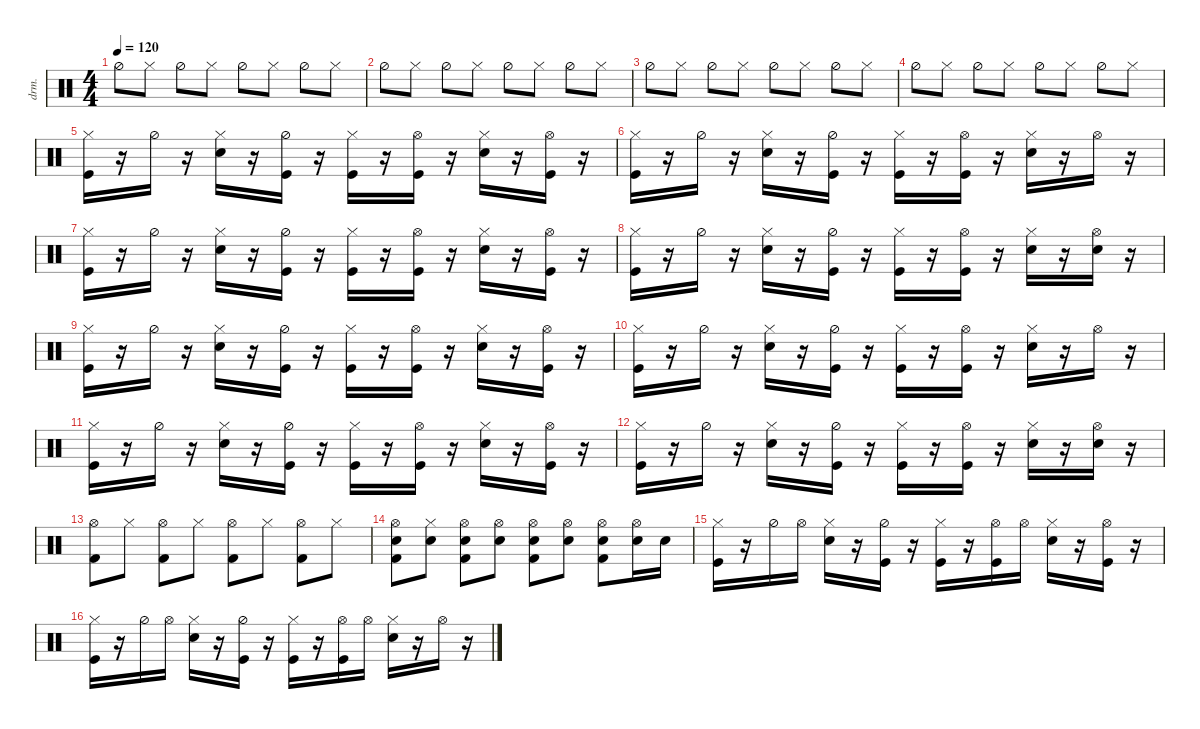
\defaultSystemsLayout 4
\hideDynamics
\bracketExtendMode nobrackets
\otherSystemsTrackNameOrientation horizontal
\track ("Drumkit" "drm.") {instrument percussion}
\staff {score}
\articulation defaults
\ts (4 4)
\tempo 120
\clef neutral
\ks c "Hi-Hat (half)".8{dy mf beam Down} "Hi-Hat (closed)".8{beam Down} "Hi-Hat (half)".8{beam Down} "Hi-Hat (closed)".8{beam Down} "Hi-Hat (half)".8{beam Down} "Hi-Hat (closed)".8{beam Down} "Hi-Hat (half)".8{beam Down} "Hi-Hat (closed)".8{beam Down}
|
"Hi-Hat (half)".8{beam Down} "Hi-Hat (closed)".8{beam Down} "Hi-Hat (half)".8{beam Down} "Hi-Hat (closed)".8{beam Down} "Hi-Hat (half)".8{beam Down} "Hi-Hat (closed)".8{beam Down} "Hi-Hat (half)".8{beam Down} "Hi-Hat (closed)".8{beam Down} |
"Hi-Hat (half)".8{beam Down} "Hi-Hat (closed)".8{beam Down} "Hi-Hat (half)".8{beam Down} "Hi-Hat (closed)".8{beam Down} "Hi-Hat (half)".8{beam Down} "Hi-Hat (closed)".8{beam Down} "Hi-Hat (half)".8{beam Down} "Hi-Hat (closed)".8{beam Down} |
"Hi-Hat (half)".8{beam Down} "Hi-Hat (closed)".8{beam Down} "Hi-Hat (half)".8{beam Down} "Hi-Hat (closed)".8{beam Down} "Hi-Hat (half)".8{beam Down} "Hi-Hat (closed)".8{beam Down} "Hi-Hat (half)".8{beam Down} "Hi-Hat (closed)".8{beam Down} |
("Hi-Hat (closed)" "Kick (hit)").16{beam Down} r.16{beam Down} "Hi-Hat (half)".16{beam Down} r.16{beam Down} ("Hi-Hat (closed)" "Snare (hit) 2").16{beam Down} r.16{beam Down} ("Hi-Hat (half)" "Kick (hit)").16{beam Down} r.16{beam Down} ("Hi-Hat (closed)" "Kick (hit)").16{beam Down} r.16{beam Down} ("Hi-Hat (open)" "Kick (hit)").16{beam Down} r.16{beam Down} ("Hi-Hat (closed)" "Snare (hit) 2").16{beam Down} r.16{beam Down} ("Hi-Hat (open)" "Kick (hit)").16{beam Down} r.16{beam Down} |
("Hi-Hat (closed)" "Kick (hit)").16{beam Down} r.16{beam Down} "Hi-Hat (half)".16{beam Down} r.16{beam Down} ("Hi-Hat (closed)" "Snare (hit) 2").16{beam Down} r.16{beam Down} ("Hi-Hat (half)" "Kick (hit)").16{beam Down} r.16{beam Down} ("Hi-Hat (closed)" "Kick (hit)").16{beam Down} r.16{beam Down} ("Hi-Hat (open)" "Kick (hit)").16{beam Down} r.16{beam Down} ("Hi-Hat (closed)" "Snare (hit) 2").16{beam Down} r.16{beam Down} "Hi-Hat (open)".16{beam Down} r.16{beam Down} |
("Hi-Hat (closed)" "Kick (hit)").16{beam Down} r.16{beam Down} "Hi-Hat (half)".16{beam Down} r.16{beam Down} ("Hi-Hat (closed)" "Snare (hit) 2").16{beam Down} r.16{beam Down} ("Hi-Hat (half)" "Kick (hit)").16{beam Down} r.16{beam Down} ("Hi-Hat (closed)" "Kick (hit)").16{beam Down} r.16{beam Down} ("Hi-Hat (open)" "Kick (hit)").16{beam Down} r.16{beam Down} ("Hi-Hat (closed)" "Snare (hit) 2").16{beam Down} r.16{beam Down} ("Hi-Hat (open)" "Kick (hit)").16{beam Down} r.16{beam Down} |
("Hi-Hat (closed)" "Kick (hit)").16{beam Down} r.16{beam Down} "Hi-Hat (half)".16{beam Down} r.16{beam Down} ("Hi-Hat (closed)" "Snare (hit) 2").16{beam Down} r.16{beam Down} ("Hi-Hat (half)" "Kick (hit)").16{beam Down} r.16{beam Down} ("Hi-Hat (closed)" "Kick (hit)").16{beam Down} r.16{beam Down} ("Hi-Hat (open)" "Kick (hit)").16{beam Down} r.16{beam Down} ("Hi-Hat (closed)" "Snare (hit) 2").16{beam Down} r.16{beam Down} ("Hi-Hat (open)" "Snare (hit) 2").16{beam Down} r.16{beam Down} |
("Hi-Hat (closed)" "Kick (hit)").16{beam Down} r.16{beam Down} "Hi-Hat (half)".16{beam Down} r.16{beam Down} ("Hi-Hat (closed)" "Snare (hit) 2").16{beam Down} r.16{beam Down} ("Hi-Hat (half)" "Kick (hit)").16{beam Down} r.16{beam Down} ("Hi-Hat (closed)" "Kick (hit)").16{beam Down} r.16{beam Down} ("Hi-Hat (open)" "Kick (hit)").16{beam Down} r.16{beam Down} ("Hi-Hat (closed)" "Snare (hit) 2").16{beam Down} r.16{beam Down} ("Hi-Hat (open)" "Kick (hit)").16{beam Down} r.16{beam Down} |
("Hi-Hat (closed)" "Kick (hit)").16{beam Down} r.16{beam Down} "Hi-Hat (half)".16{beam Down} r.16{beam Down} ("Hi-Hat (closed)" "Snare (hit) 2").16{beam Down} r.16{beam Down} ("Hi-Hat (half)" "Kick (hit)").16{beam Down} r.16{beam Down} ("Hi-Hat (closed)" "Kick (hit)").16{beam Down} r.16{beam Down} ("Hi-Hat (open)" "Kick (hit)").16{beam Down} r.16{beam Down} ("Hi-Hat (closed)" "Snare (hit) 2").16{beam Down} r.16{beam Down} "Hi-Hat (open)".16{beam Down} r.16{beam Down} |
("Hi-Hat (closed)" "Kick (hit)").16{beam Down} r.16{beam Down} "Hi-Hat (half)".16{beam Down} r.16{beam Down} ("Hi-Hat (closed)" "Snare (hit) 2").16{beam Down} r.16{beam Down} ("Hi-Hat (half)" "Kick (hit)").16{beam Down} r.16{beam Down} ("Hi-Hat (closed)" "Kick (hit)").16{beam Down} r.16{beam Down} ("Hi-Hat (open)" "Kick (hit)").16{beam Down} r.16{beam Down} ("Hi-Hat (closed)" "Snare (hit) 2").16{beam Down} r.16{beam Down} ("Hi-Hat (open)" "Kick (hit)").16{beam Down} r.16{beam Down} |
("Hi-Hat (closed)" "Kick (hit)").16{beam Down} r.16{beam Down} "Hi-Hat (half)".16{beam Down} r.16{beam Down} ("Hi-Hat (closed)" "Snare (hit) 2").16{beam Down} r.16{beam Down} ("Hi-Hat (half)" "Kick (hit)").16{beam Down} r.16{beam Down} ("Hi-Hat (closed)" "Kick (hit)").16{beam Down} r.16{beam Down} ("Hi-Hat (open)" "Kick (hit)").16{beam Down} r.16{beam Down} ("Hi-Hat (closed)" "Snare (hit) 2").16{beam Down} r.16{beam Down} ("Hi-Hat (open)" "Snare (hit) 2").16{beam Down} r.16{beam Down} |
("Hi-Hat (open)" "Kick (hit) 2").8{beam Down} "Hi-Hat (closed)".8{beam Down} ("Hi-Hat (open)" "Kick (hit) 2").8{beam Down} "Hi-Hat (closed)".8{beam Down} ("Hi-Hat (open)" "Kick (hit) 2").8{beam Down} "Hi-Hat (closed)".8{beam Down} ("Hi-Hat (open)" "Kick (hit) 2").8{beam Down} "Hi-Hat (closed)".8{beam Down} |
("Hi-Hat (open)" "Snare (hit) 2" "Kick (hit) 2").8{beam Down} ("Hi-Hat (closed)" "Snare (hit) 2").8{beam Down} ("Hi-Hat (open)" "Snare (hit) 2" "Kick (hit) 2").8{beam Down} ("Hi-Hat (open)" "Snare (hit) 2").8{beam Down} ("Snare (hit) 2" "Hi-Hat (open)" "Kick (hit) 2").8{beam Down} ("Snare (hit) 2" "Hi-Hat (open)").8{beam Down} ("Snare (hit) 2" "Hi-Hat (open)" "Kick (hit) 2").8{beam Down} ("Snare (hit) 2" "Hi-Hat (open)").16{beam Down} "Snare (hit) 2".16{beam Down} |
("Hi-Hat (closed)" "Kick (hit)").16{beam Down} r.16{beam Down} "Hi-Hat (half)".16{beam Down} "Hi-Hat (open)".16{beam Down} ("Hi-Hat (closed)" "Snare (hit) 2").16{beam Down} r.16{beam Down} ("Hi-Hat (half)" "Kick (hit)").16{beam Down} r.16{beam Down} ("Hi-Hat (closed)" "Kick (hit)").16{beam Down} r.16{beam Down} ("Hi-Hat (open)" "Kick (hit)").16{beam Down} "Hi-Hat (open)".16{beam Down} ("Hi-Hat (closed)" "Snare (hit) 2").16{beam Down} r.16{beam Down} ("Hi-Hat (open)" "Kick (hit)").16{beam Down} r.16{beam Down} |
("Hi-Hat (closed)" "Kick (hit)").16{beam Down} r.16{beam Down} "Hi-Hat (half)".16{beam Down} "Hi-Hat (open)".16{beam Down} ("Hi-Hat (closed)" "Snare (hit) 2").16{beam Down} r.16{beam Down} ("Hi-Hat (half)" "Kick (hit)").16{beam Down} r.16{beam Down} ("Hi-Hat (closed)" "Kick (hit)").16{beam Down} r.16{beam Down} ("Hi-Hat (open)" "Kick (hit)").16{beam Down} "Hi-Hat (open)".16{beam Down} ("Hi-Hat (closed)" "Snare (hit) 2").16{beam Down} r.16{beam Down} "Hi-Hat (open)".16{beam Down} r.16{beam Down}
